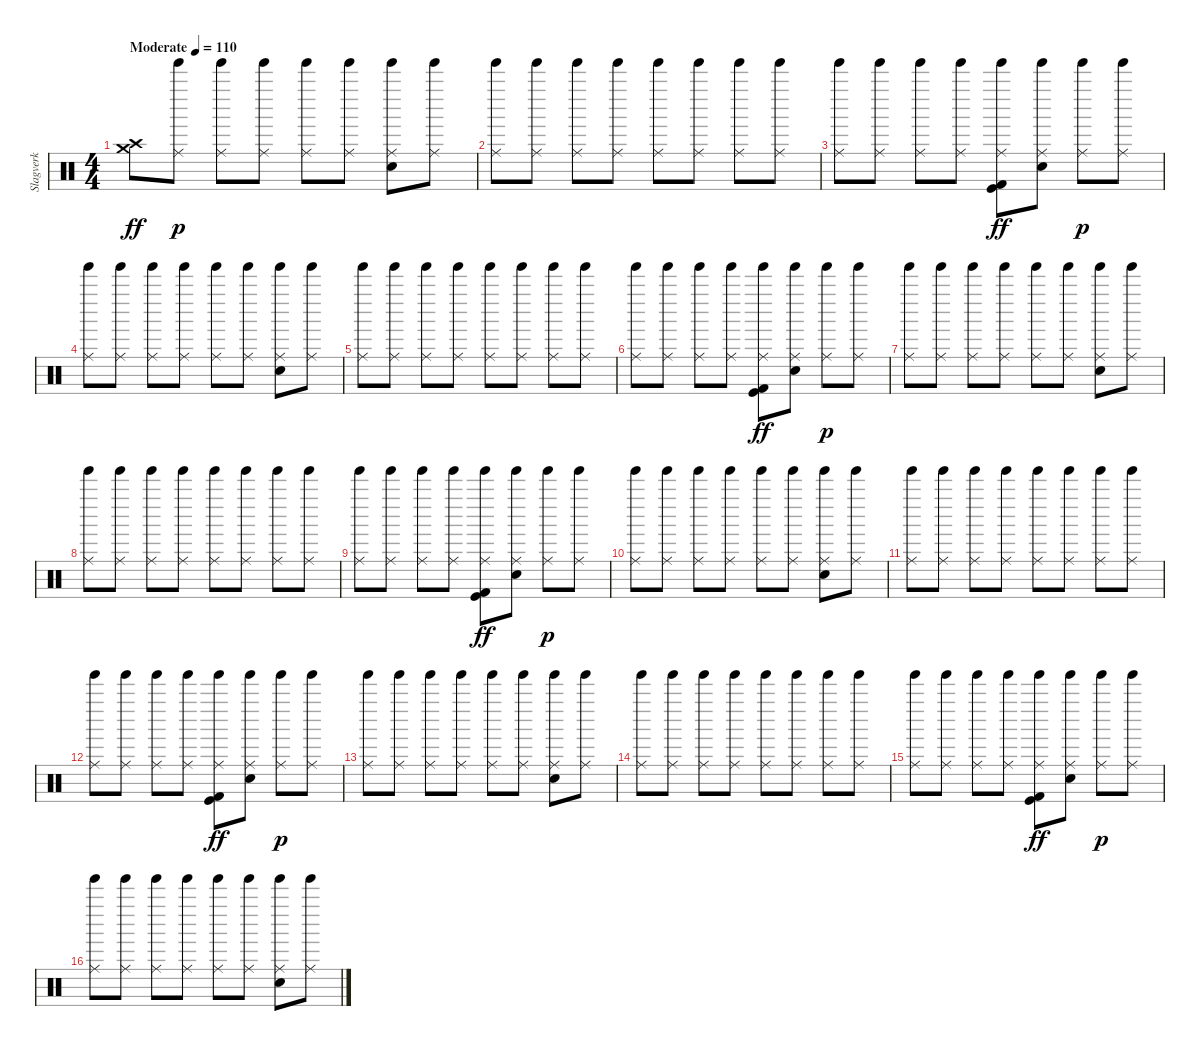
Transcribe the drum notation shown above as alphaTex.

\track ("Slagverk" "Slagverk") {instrument percussion}
\staff {score}
\articulation defaults
\ts (4 4)
\tempo (110 "Moderate")
\clef neutral
\ks c
("Crash high (hit)" "Crash medium (hit)").8{dy ff} ("Tinkle Bell (hit)" "Ride (middle)").8{dy p} ("Tinkle Bell (hit)" "Ride (middle)").8 ("Tinkle Bell (hit)" "Ride (middle)").8 ("Tinkle Bell (hit)" "Ride (middle)").8 ("Tinkle Bell (hit)" "Ride (middle)").8 ("Tinkle Bell (hit)" "Ride (middle)" "Electric Snare (hit)").8 ("Tinkle Bell (hit)" "Ride (middle)").8 |
("Tinkle Bell (hit)" "Ride (middle)").8 ("Tinkle Bell (hit)" "Ride (middle)").8 ("Tinkle Bell (hit)" "Ride (middle)").8 ("Tinkle Bell (hit)" "Ride (middle)").8 ("Tinkle Bell (hit)" "Ride (middle)").8 ("Tinkle Bell (hit)" "Ride (middle)").8 ("Tinkle Bell (hit)" "Ride (middle)").8 ("Tinkle Bell (hit)" "Ride (middle)").8 |
("Tinkle Bell (hit)" "Ride (middle)").8 ("Tinkle Bell (hit)" "Ride (middle)").8 ("Tinkle Bell (hit)" "Ride (middle)").8 ("Tinkle Bell (hit)" "Ride (middle)").8 ("Tinkle Bell (hit)" "Ride (middle)" "Kick (hit) 2" "Kick (hit)").8{dy ff} ("Tinkle Bell (hit)" "Ride (middle)" "Electric Snare (hit)").8 ("Tinkle Bell (hit)" "Ride (middle)").8{dy p} ("Tinkle Bell (hit)" "Ride (middle)").8 |
("Tinkle Bell (hit)" "Ride (middle)").8 ("Tinkle Bell (hit)" "Ride (middle)").8 ("Tinkle Bell (hit)" "Ride (middle)").8 ("Tinkle Bell (hit)" "Ride (middle)").8 ("Tinkle Bell (hit)" "Ride (middle)").8 ("Tinkle Bell (hit)" "Ride (middle)").8 ("Tinkle Bell (hit)" "Ride (middle)" "Electric Snare (hit)").8 ("Tinkle Bell (hit)" "Ride (middle)").8 |
("Tinkle Bell (hit)" "Ride (middle)").8 ("Tinkle Bell (hit)" "Ride (middle)").8 ("Tinkle Bell (hit)" "Ride (middle)").8 ("Tinkle Bell (hit)" "Ride (middle)").8 ("Tinkle Bell (hit)" "Ride (middle)").8 ("Tinkle Bell (hit)" "Ride (middle)").8 ("Tinkle Bell (hit)" "Ride (middle)").8 ("Tinkle Bell (hit)" "Ride (middle)").8 |
("Tinkle Bell (hit)" "Ride (middle)").8 ("Tinkle Bell (hit)" "Ride (middle)").8 ("Tinkle Bell (hit)" "Ride (middle)").8 ("Tinkle Bell (hit)" "Ride (middle)").8 ("Tinkle Bell (hit)" "Ride (middle)" "Kick (hit) 2" "Kick (hit)").8{dy ff} ("Tinkle Bell (hit)" "Ride (middle)" "Electric Snare (hit)").8 ("Tinkle Bell (hit)" "Ride (middle)").8{dy p} ("Tinkle Bell (hit)" "Ride (middle)").8 |
("Tinkle Bell (hit)" "Ride (middle)").8 ("Tinkle Bell (hit)" "Ride (middle)").8 ("Tinkle Bell (hit)" "Ride (middle)").8 ("Tinkle Bell (hit)" "Ride (middle)").8 ("Tinkle Bell (hit)" "Ride (middle)").8 ("Tinkle Bell (hit)" "Ride (middle)").8 ("Tinkle Bell (hit)" "Ride (middle)" "Electric Snare (hit)").8 ("Tinkle Bell (hit)" "Ride (middle)").8 |
("Tinkle Bell (hit)" "Ride (middle)").8 ("Tinkle Bell (hit)" "Ride (middle)").8 ("Tinkle Bell (hit)" "Ride (middle)").8 ("Tinkle Bell (hit)" "Ride (middle)").8 ("Tinkle Bell (hit)" "Ride (middle)").8 ("Tinkle Bell (hit)" "Ride (middle)").8 ("Tinkle Bell (hit)" "Ride (middle)").8 ("Tinkle Bell (hit)" "Ride (middle)").8 |
("Tinkle Bell (hit)" "Ride (middle)").8 ("Tinkle Bell (hit)" "Ride (middle)").8 ("Tinkle Bell (hit)" "Ride (middle)").8 ("Tinkle Bell (hit)" "Ride (middle)").8 ("Tinkle Bell (hit)" "Ride (middle)" "Kick (hit) 2" "Kick (hit)").8{dy ff} ("Tinkle Bell (hit)" "Ride (middle)" "Electric Snare (hit)").8 ("Tinkle Bell (hit)" "Ride (middle)").8{dy p} ("Tinkle Bell (hit)" "Ride (middle)").8 |
("Tinkle Bell (hit)" "Ride (middle)").8 ("Tinkle Bell (hit)" "Ride (middle)").8 ("Tinkle Bell (hit)" "Ride (middle)").8 ("Tinkle Bell (hit)" "Ride (middle)").8 ("Tinkle Bell (hit)" "Ride (middle)").8 ("Tinkle Bell (hit)" "Ride (middle)").8 ("Tinkle Bell (hit)" "Ride (middle)" "Electric Snare (hit)").8 ("Tinkle Bell (hit)" "Ride (middle)").8 |
("Tinkle Bell (hit)" "Ride (middle)").8 ("Tinkle Bell (hit)" "Ride (middle)").8 ("Tinkle Bell (hit)" "Ride (middle)").8 ("Tinkle Bell (hit)" "Ride (middle)").8 ("Tinkle Bell (hit)" "Ride (middle)").8 ("Tinkle Bell (hit)" "Ride (middle)").8 ("Tinkle Bell (hit)" "Ride (middle)").8 ("Tinkle Bell (hit)" "Ride (middle)").8 |
("Tinkle Bell (hit)" "Ride (middle)").8 ("Tinkle Bell (hit)" "Ride (middle)").8 ("Tinkle Bell (hit)" "Ride (middle)").8 ("Tinkle Bell (hit)" "Ride (middle)").8 ("Tinkle Bell (hit)" "Ride (middle)" "Kick (hit) 2" "Kick (hit)").8{dy ff} ("Tinkle Bell (hit)" "Ride (middle)" "Electric Snare (hit)").8 ("Tinkle Bell (hit)" "Ride (middle)").8{dy p} ("Tinkle Bell (hit)" "Ride (middle)").8 |
("Tinkle Bell (hit)" "Ride (middle)").8 ("Tinkle Bell (hit)" "Ride (middle)").8 ("Tinkle Bell (hit)" "Ride (middle)").8 ("Tinkle Bell (hit)" "Ride (middle)").8 ("Tinkle Bell (hit)" "Ride (middle)").8 ("Tinkle Bell (hit)" "Ride (middle)").8 ("Tinkle Bell (hit)" "Ride (middle)" "Electric Snare (hit)").8 ("Tinkle Bell (hit)" "Ride (middle)").8 |
("Tinkle Bell (hit)" "Ride (middle)").8 ("Tinkle Bell (hit)" "Ride (middle)").8 ("Tinkle Bell (hit)" "Ride (middle)").8 ("Tinkle Bell (hit)" "Ride (middle)").8 ("Tinkle Bell (hit)" "Ride (middle)").8 ("Tinkle Bell (hit)" "Ride (middle)").8 ("Tinkle Bell (hit)" "Ride (middle)").8 ("Tinkle Bell (hit)" "Ride (middle)").8 |
("Tinkle Bell (hit)" "Ride (middle)").8 ("Tinkle Bell (hit)" "Ride (middle)").8 ("Tinkle Bell (hit)" "Ride (middle)").8 ("Tinkle Bell (hit)" "Ride (middle)").8 ("Tinkle Bell (hit)" "Ride (middle)" "Kick (hit) 2" "Kick (hit)").8{dy ff} ("Tinkle Bell (hit)" "Ride (middle)" "Electric Snare (hit)").8 ("Tinkle Bell (hit)" "Ride (middle)").8{dy p} ("Tinkle Bell (hit)" "Ride (middle)").8 |
("Tinkle Bell (hit)" "Ride (middle)").8 ("Tinkle Bell (hit)" "Ride (middle)").8 ("Tinkle Bell (hit)" "Ride (middle)").8 ("Tinkle Bell (hit)" "Ride (middle)").8 ("Tinkle Bell (hit)" "Ride (middle)").8 ("Tinkle Bell (hit)" "Ride (middle)").8 ("Tinkle Bell (hit)" "Ride (middle)" "Electric Snare (hit)").8 ("Tinkle Bell (hit)" "Ride (middle)").8
